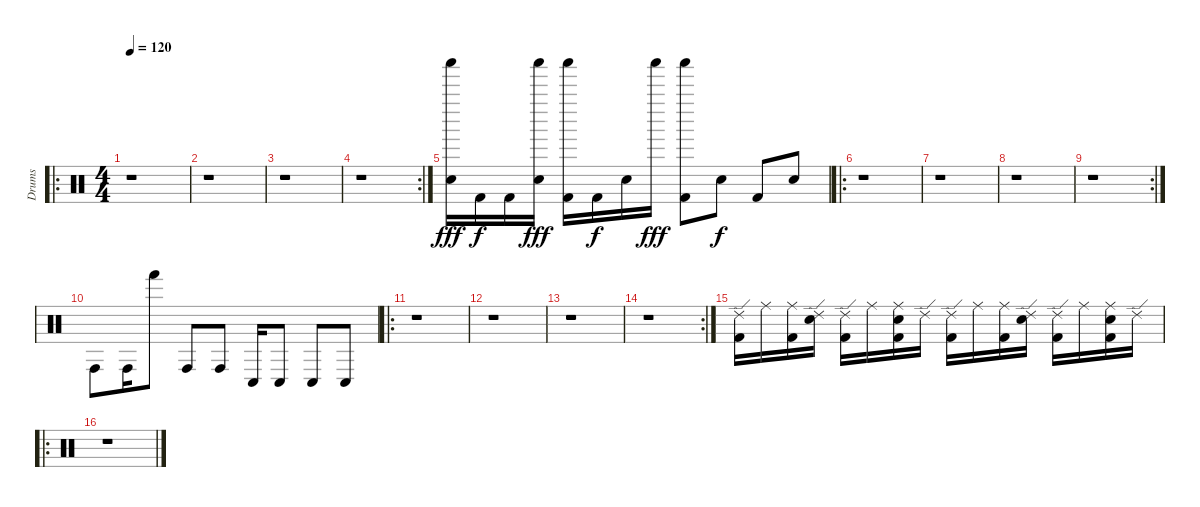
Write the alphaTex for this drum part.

\track ("Drums" "Drums") {instrument percussion}
\staff {score}
\articulation defaults
\ro
\ts (4 4)
\tempo 120
\clef neutral
\ks c
r.1{dy f} |
r.1 |
r.1 |
\rc 2
r.1 |
("Shaker (hit)" "Electric Snare (hit)").16{dy fff} "Kick (hit) 2".16{dy f} "Kick (hit) 2".16 ("Shaker (hit)" "Electric Snare (hit)").16{dy fff} ("Shaker (hit)" "Kick (hit) 2").16 "Kick (hit) 2".16{dy f} "Electric Snare (hit)".16 "Shaker (hit)".16{dy fff} ("Shaker (hit)" "Kick (hit) 2").8 "Electric Snare (hit)".8{dy f} "Kick (hit) 2".8 "Electric Snare (hit)".8 |
\ro
r.1 |
r.1 |
r.1 |
\rc 2
r.1 |
"Conga high (hit)".8 "Conga high (hit)".16 "Hand (hit)".8 "Conga high (hit)".8 "Conga high (hit)".8 "Conga low (hit)".16 "Conga low (hit)".8 "Conga low (hit)".8 "Conga low (hit)".8 |
\ro
r.1 |
r.1 |
r.1 |
\rc 2
r.1 |
("Ride (edge) 2" "Kick (hit) 2").16 "Ride (middle)".16 ("Ride (middle)" "Kick (hit) 2").16 ("Ride (edge) 2" "Electric Snare (hit)").16 ("Ride (edge) 2" "Kick (hit) 2").16 "Ride (middle)".16 ("Ride (middle)" "Electric Snare (hit)" "Kick (hit) 2").16 "Ride (edge) 2".16 ("Ride (edge) 2" "Kick (hit) 2").16 "Ride (middle)".16 ("Ride (middle)" "Kick (hit) 2").16 ("Ride (edge) 2" "Electric Snare (hit)").16 ("Ride (edge) 2" "Kick (hit) 2").16 "Ride (middle)".16 ("Ride (middle)" "Electric Snare (hit)" "Kick (hit) 2").16 "Ride (edge) 2".16 |
\ro
r.1
